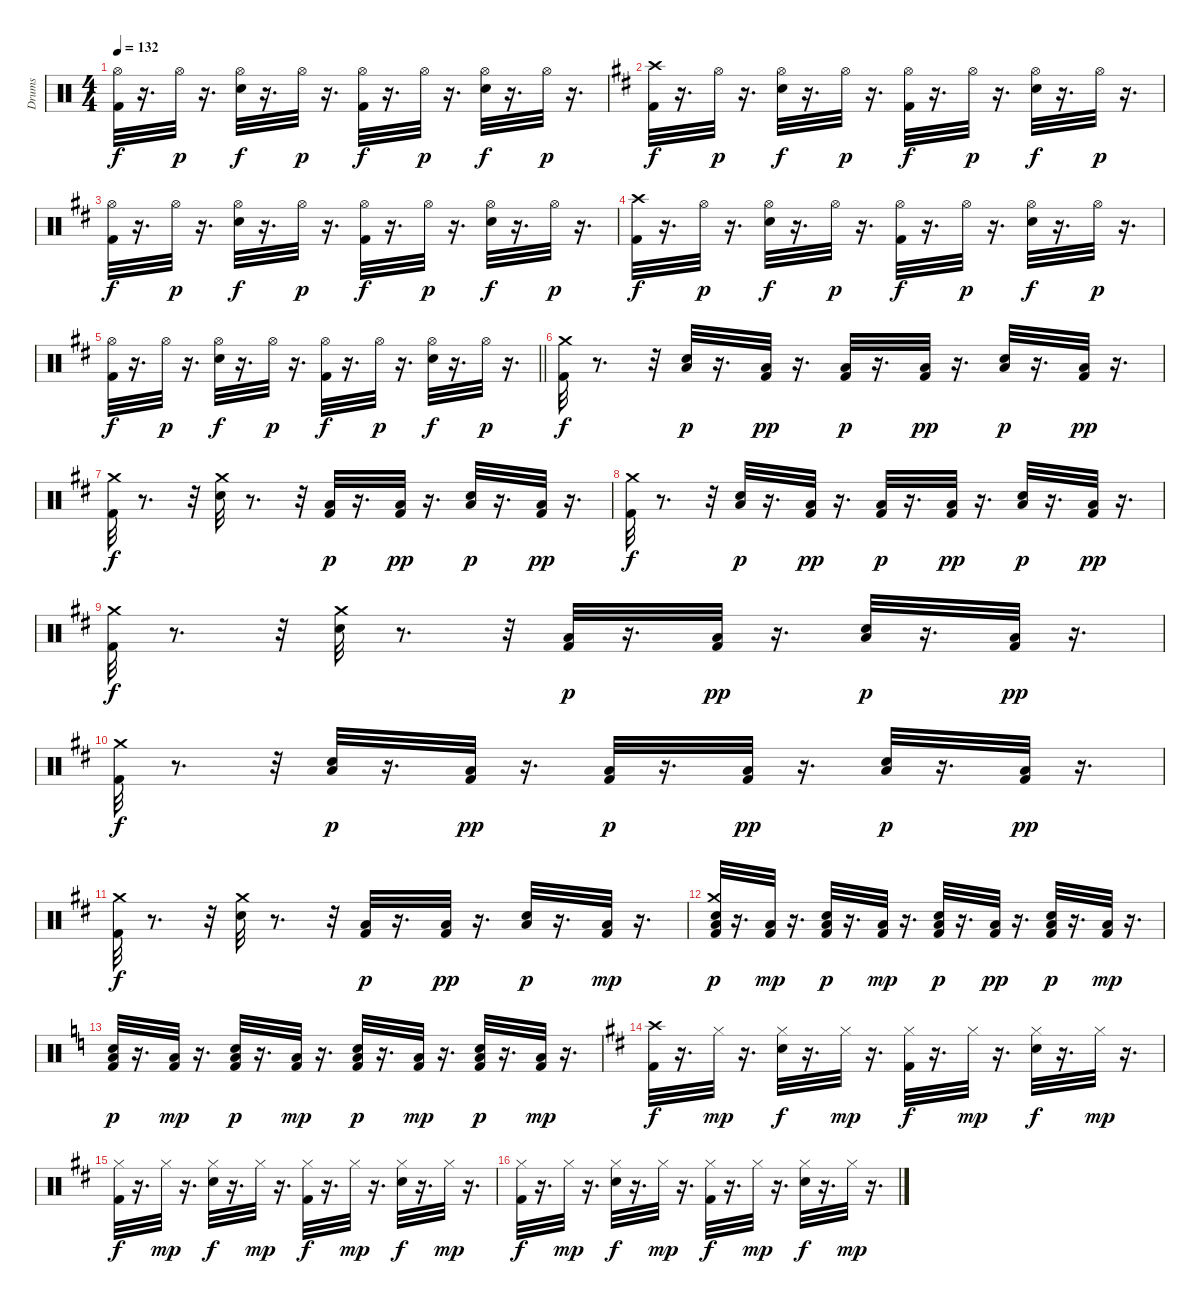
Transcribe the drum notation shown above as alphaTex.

\track ("Drums" "Drums") {instrument percussion}
\staff {score}
\articulation defaults
\ts (4 4)
\tempo 132
\clef neutral
\ks c
("Hi-Hat (open)" "Kick (hit) 2").32{dy f} r.16{d} "Hi-Hat (open)".32{dy p} r.16{d} ("Hi-Hat (open)" "Electric Snare (hit)").32{dy f} r.16{d} "Hi-Hat (open)".32{dy p} r.16{d} ("Hi-Hat (open)" "Kick (hit) 2").32{dy f} r.16{d} "Hi-Hat (open)".32{dy p} r.16{d} ("Hi-Hat (open)" "Electric Snare (hit)").32{dy f} r.16{d} "Hi-Hat (open)".32{dy p} r.16{d} |
\ks d
("Crash high (hit)" "Kick (hit) 2").32{dy f} r.16{d} "Hi-Hat (open)".32{dy p} r.16{d} ("Hi-Hat (open)" "Electric Snare (hit)").32{dy f} r.16{d} "Hi-Hat (open)".32{dy p} r.16{d} ("Hi-Hat (open)" "Kick (hit) 2").32{dy f} r.16{d} "Hi-Hat (open)".32{dy p} r.16{d} ("Hi-Hat (open)" "Electric Snare (hit)").32{dy f} r.16{d} "Hi-Hat (open)".32{dy p} r.16{d} |
("Hi-Hat (open)" "Kick (hit) 2").32{dy f} r.16{d} "Hi-Hat (open)".32{dy p} r.16{d} ("Hi-Hat (open)" "Electric Snare (hit)").32{dy f} r.16{d} "Hi-Hat (open)".32{dy p} r.16{d} ("Hi-Hat (open)" "Kick (hit) 2").32{dy f} r.16{d} "Hi-Hat (open)".32{dy p} r.16{d} ("Hi-Hat (open)" "Electric Snare (hit)").32{dy f} r.16{d} "Hi-Hat (open)".32{dy p} r.16{d} |
("Crash high (hit)" "Kick (hit) 2").32{dy f} r.16{d} "Hi-Hat (open)".32{dy p} r.16{d} ("Hi-Hat (open)" "Electric Snare (hit)").32{dy f} r.16{d} "Hi-Hat (open)".32{dy p} r.16{d} ("Hi-Hat (open)" "Kick (hit) 2").32{dy f} r.16{d} "Hi-Hat (open)".32{dy p} r.16{d} ("Hi-Hat (open)" "Electric Snare (hit)").32{dy f} r.16{d} "Hi-Hat (open)".32{dy p} r.16{d} |
\barLineRight lightlight
("Hi-Hat (open)" "Kick (hit) 2").32{dy f} r.16{d} "Hi-Hat (open)".32{dy p} r.16{d} ("Hi-Hat (open)" "Electric Snare (hit)").32{dy f} r.16{d} "Hi-Hat (open)".32{dy p} r.16{d} ("Hi-Hat (open)" "Kick (hit) 2").32{dy f} r.16{d} "Hi-Hat (open)".32{dy p} r.16{d} ("Hi-Hat (open)" "Electric Snare (hit)").32{dy f} r.16{d} "Hi-Hat (open)".32{dy p} r.16{d} |
("Kick (hit) 2" "Crash medium (hit)").32{dy f} r.8{d} r.32 ("Low Floor Tom (hit)" "Electric Snare (hit)").32{dy p} r.16{d} ("Kick (hit) 2" "Low Floor Tom (hit)").32{dy pp} r.16{d} ("Kick (hit) 2" "Low Floor Tom (hit)").32{dy p} r.16{d} ("Kick (hit) 2" "Low Floor Tom (hit)").32{dy pp} r.16{d} ("Low Floor Tom (hit)" "Electric Snare (hit)").32{dy p} r.16{d} ("Kick (hit) 2" "Low Floor Tom (hit)").32{dy pp} r.16{d} |
("Kick (hit) 2" "Crash medium (hit)").32{dy f} r.8{d} r.32 ("Electric Snare (hit)" "Crash medium (hit)").32 r.8{d} r.32 ("Low Floor Tom (hit)" "Kick (hit) 2").32{dy p} r.16{d} ("Kick (hit) 2" "Low Floor Tom (hit)").32{dy pp} r.16{d} ("Low Floor Tom (hit)" "Electric Snare (hit)").32{dy p} r.16{d} ("Kick (hit) 2" "Low Floor Tom (hit)").32{dy pp} r.16{d} |
("Kick (hit) 2" "Crash medium (hit)").32{dy f} r.8{d} r.32 ("Low Floor Tom (hit)" "Electric Snare (hit)").32{dy p} r.16{d} ("Kick (hit) 2" "Low Floor Tom (hit)").32{dy pp} r.16{d} ("Kick (hit) 2" "Low Floor Tom (hit)").32{dy p} r.16{d} ("Kick (hit) 2" "Low Floor Tom (hit)").32{dy pp} r.16{d} ("Low Floor Tom (hit)" "Electric Snare (hit)").32{dy p} r.16{d} ("Kick (hit) 2" "Low Floor Tom (hit)").32{dy pp} r.16{d} |
("Kick (hit) 2" "Crash medium (hit)").32{dy f} r.8{d} r.32 ("Electric Snare (hit)" "Crash medium (hit)").32 r.8{d} r.32 ("Low Floor Tom (hit)" "Kick (hit) 2").32{dy p} r.16{d} ("Kick (hit) 2" "Low Floor Tom (hit)").32{dy pp} r.16{d} ("Low Floor Tom (hit)" "Electric Snare (hit)").32{dy p} r.16{d} ("Kick (hit) 2" "Low Floor Tom (hit)").32{dy pp} r.16{d} |
("Kick (hit) 2" "Crash medium (hit)").32{dy f} r.8{d} r.32 ("Low Floor Tom (hit)" "Electric Snare (hit)").32{dy p} r.16{d} ("Kick (hit) 2" "Low Floor Tom (hit)").32{dy pp} r.16{d} ("Kick (hit) 2" "Low Floor Tom (hit)").32{dy p} r.16{d} ("Kick (hit) 2" "Low Floor Tom (hit)").32{dy pp} r.16{d} ("Low Floor Tom (hit)" "Electric Snare (hit)").32{dy p} r.16{d} ("Kick (hit) 2" "Low Floor Tom (hit)").32{dy pp} r.16{d} |
("Kick (hit) 2" "Crash medium (hit)").32{dy f} r.8{d} r.32 ("Crash medium (hit)" "Electric Snare (hit)").32 r.8{d} r.32 ("Low Floor Tom (hit)" "Kick (hit) 2").32{dy p} r.16{d} ("Kick (hit) 2" "Low Floor Tom (hit)").32{dy pp} r.16{d} ("Low Floor Tom (hit)" "Electric Snare (hit)").32{dy p} r.16{d} ("Low Floor Tom (hit)" "Kick (hit) 2").32{dy mp} r.16{d} |
("Electric Snare (hit)" "Crash medium (hit)" "Low Floor Tom (hit)" "Kick (hit) 2").32{dy p} r.16{d} ("Low Floor Tom (hit)" "Kick (hit) 2").32{dy mp} r.16{d} ("Kick (hit) 2" "Low Floor Tom (hit)" "Electric Snare (hit)").32{dy p} r.16{d} ("Low Floor Tom (hit)" "Kick (hit) 2").32{dy mp} r.16{d} ("Electric Snare (hit)" "Kick (hit) 2" "Low Floor Tom (hit)").32{dy p} r.16{d} ("Kick (hit) 2" "Low Floor Tom (hit)").32{dy pp} r.16{d} ("Kick (hit) 2" "Low Floor Tom (hit)" "Electric Snare (hit)").32{dy p} r.16{d} ("Low Floor Tom (hit)" "Kick (hit) 2").32{dy mp} r.16{d} |
\ks c
("Electric Snare (hit)" "Low Floor Tom (hit)" "Kick (hit) 2").32{dy p} r.16{d} ("Low Floor Tom (hit)" "Kick (hit) 2").32{dy mp} r.16{d} ("Kick (hit) 2" "Low Floor Tom (hit)" "Electric Snare (hit)").32{dy p} r.16{d} ("Low Floor Tom (hit)" "Kick (hit) 2").32{dy mp} r.16{d} ("Electric Snare (hit)" "Low Floor Tom (hit)" "Kick (hit) 2").32{dy p} r.16{d} ("Low Floor Tom (hit)" "Kick (hit) 2").32{dy mp} r.16{d} ("Kick (hit) 2" "Low Floor Tom (hit)" "Electric Snare (hit)").32{dy p} r.16{d} ("Low Floor Tom (hit)" "Kick (hit) 2").32{dy mp} r.16{d} |
\ks d
("Crash high (hit)" "Kick (hit) 2").32{dy f} r.16{d} "Hi-Hat (closed)".32{dy mp} r.16{d} ("Hi-Hat (closed)" "Electric Snare (hit)").32{dy f} r.16{d} "Hi-Hat (closed)".32{dy mp} r.16{d} ("Hi-Hat (closed)" "Kick (hit) 2").32{dy f} r.16{d} "Hi-Hat (closed)".32{dy mp} r.16{d} ("Hi-Hat (closed)" "Electric Snare (hit)").32{dy f} r.16{d} "Hi-Hat (closed)".32{dy mp} r.16{d} |
("Hi-Hat (closed)" "Kick (hit) 2").32{dy f} r.16{d} "Hi-Hat (closed)".32{dy mp} r.16{d} ("Hi-Hat (closed)" "Electric Snare (hit)").32{dy f} r.16{d} "Hi-Hat (closed)".32{dy mp} r.16{d} ("Hi-Hat (closed)" "Kick (hit) 2").32{dy f} r.16{d} "Hi-Hat (closed)".32{dy mp} r.16{d} ("Hi-Hat (closed)" "Electric Snare (hit)").32{dy f} r.16{d} "Hi-Hat (closed)".32{dy mp} r.16{d} |
("Hi-Hat (closed)" "Kick (hit) 2").32{dy f} r.16{d} "Hi-Hat (closed)".32{dy mp} r.16{d} ("Hi-Hat (closed)" "Electric Snare (hit)").32{dy f} r.16{d} "Hi-Hat (closed)".32{dy mp} r.16{d} ("Hi-Hat (closed)" "Kick (hit) 2").32{dy f} r.16{d} "Hi-Hat (closed)".32{dy mp} r.16{d} ("Hi-Hat (closed)" "Electric Snare (hit)").32{dy f} r.16{d} "Hi-Hat (closed)".32{dy mp} r.16{d}
